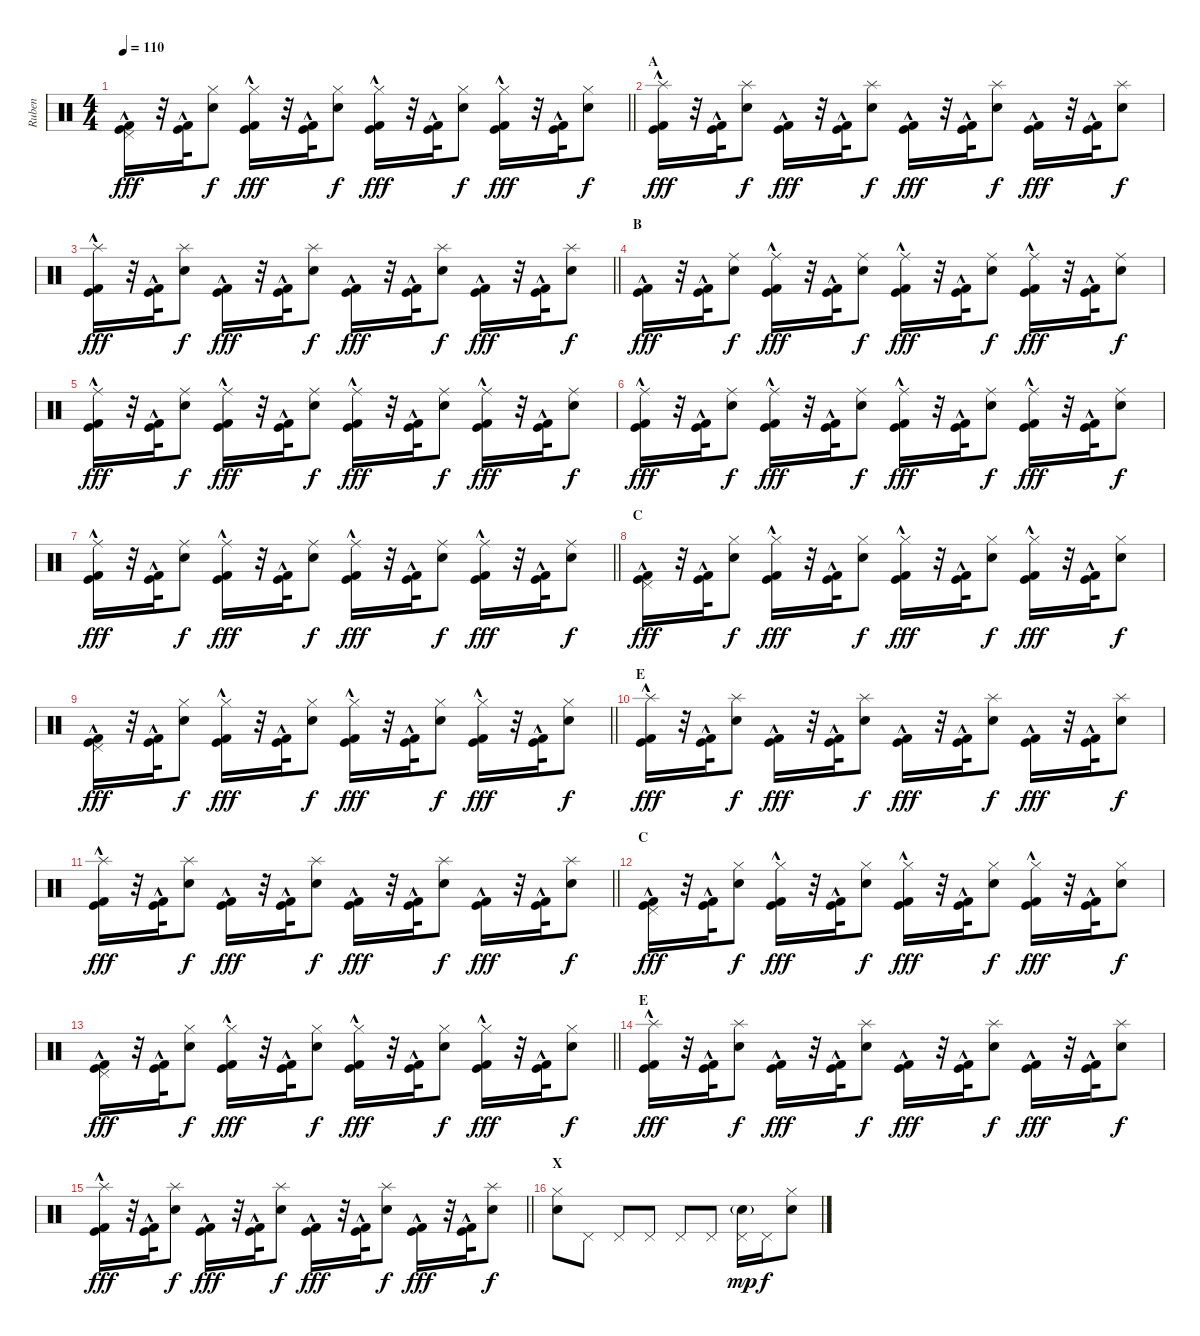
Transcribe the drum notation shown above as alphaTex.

\track ("Ruben" "Ruben") {instrument percussion}
\staff {score}
\articulation defaults
\ts (4 4)
\tempo 110
\clef neutral
\barLineRight lightlight
\ks c
("Pedal Hi-Hat (hit)" "Kick (hit)"{hac} "Kick (hit) 2"{hac}).16{dy fff} r.32 ("Kick (hit)"{hac} "Kick (hit) 2"{hac}).32 ("Hi-Hat (closed)" "Snare (hit) 2").8{dy f} ("Hi-Hat (closed)" "Kick (hit)"{hac} "Kick (hit) 2"{hac}).16{dy fff} r.32 ("Kick (hit)"{hac} "Kick (hit) 2"{hac}).32 ("Hi-Hat (closed)" "Snare (hit) 2").8{dy f} ("Hi-Hat (closed)" "Kick (hit)"{hac} "Kick (hit) 2"{hac}).16{dy fff} r.32 ("Kick (hit)"{hac} "Kick (hit) 2"{hac}).32 ("Hi-Hat (closed)" "Snare (hit) 2").8{dy f} ("Hi-Hat (closed)" "Kick (hit)"{hac} "Kick (hit) 2"{hac}).16{dy fff} r.32 ("Kick (hit)"{hac} "Kick (hit) 2"{hac}).32 ("Hi-Hat (closed)" "Snare (hit) 2").8{dy f} |
\section ("" "A")
("Splash (hit)" "Kick (hit)"{hac} "Kick (hit) 2"{hac}).16{dy fff} r.32 ("Kick (hit)"{hac} "Kick (hit) 2"{hac}).32 ("Splash (hit)" "Snare (hit) 2").8{dy f} ("Kick (hit)"{hac} "Kick (hit) 2"{hac}).16{dy fff} r.32 ("Kick (hit)"{hac} "Kick (hit) 2"{hac}).32 ("Splash (hit)" "Snare (hit) 2").8{dy f} ("Kick (hit)"{hac} "Kick (hit) 2"{hac}).16{dy fff} r.32 ("Kick (hit)"{hac} "Kick (hit) 2"{hac}).32 ("Splash (hit)" "Snare (hit) 2").8{dy f} ("Kick (hit)"{hac} "Kick (hit) 2"{hac}).16{dy fff} r.32 ("Kick (hit)"{hac} "Kick (hit) 2"{hac}).32 ("Splash (hit)" "Snare (hit) 2").8{dy f} |
\barLineRight lightlight
("Splash (hit)" "Kick (hit)"{hac} "Kick (hit) 2"{hac}).16{dy fff} r.32 ("Kick (hit)"{hac} "Kick (hit) 2"{hac}).32 ("Splash (hit)" "Snare (hit) 2").8{dy f} ("Kick (hit)"{hac} "Kick (hit) 2"{hac}).16{dy fff} r.32 ("Kick (hit)"{hac} "Kick (hit) 2"{hac}).32 ("Splash (hit)" "Snare (hit) 2").8{dy f} ("Kick (hit)"{hac} "Kick (hit) 2"{hac}).16{dy fff} r.32 ("Kick (hit)"{hac} "Kick (hit) 2"{hac}).32 ("Splash (hit)" "Snare (hit) 2").8{dy f} ("Kick (hit)"{hac} "Kick (hit) 2"{hac}).16{dy fff} r.32 ("Kick (hit)"{hac} "Kick (hit) 2"{hac}).32 ("Splash (hit)" "Snare (hit) 2").8{dy f} |
\section ("" "B")
("Kick (hit)"{hac} "Kick (hit) 2"{hac}).16{dy fff} r.32 ("Kick (hit)"{hac} "Kick (hit) 2"{hac}).32 ("Ride (middle)" "Snare (hit) 2").8{dy f} ("Ride (middle)" "Kick (hit)"{hac} "Kick (hit) 2"{hac}).16{dy fff} r.32 ("Kick (hit)"{hac} "Kick (hit) 2"{hac}).32 ("Ride (middle)" "Snare (hit) 2").8{dy f} ("Ride (middle)" "Kick (hit)"{hac} "Kick (hit) 2"{hac}).16{dy fff} r.32 ("Kick (hit)"{hac} "Kick (hit) 2"{hac}).32 ("Ride (middle)" "Snare (hit) 2").8{dy f} ("Ride (middle)" "Kick (hit)"{hac} "Kick (hit) 2"{hac}).16{dy fff} r.32 ("Kick (hit)"{hac} "Kick (hit) 2"{hac}).32 ("Ride (middle)" "Snare (hit) 2").8{dy f} |
("Ride (middle)" "Kick (hit)"{hac} "Kick (hit) 2"{hac}).16{dy fff} r.32 ("Kick (hit)"{hac} "Kick (hit) 2"{hac}).32 ("Ride (middle)" "Snare (hit) 2").8{dy f} ("Ride (middle)" "Kick (hit)"{hac} "Kick (hit) 2"{hac}).16{dy fff} r.32 ("Kick (hit)"{hac} "Kick (hit) 2"{hac}).32 ("Ride (middle)" "Snare (hit) 2").8{dy f} ("Ride (middle)" "Kick (hit)"{hac} "Kick (hit) 2"{hac}).16{dy fff} r.32 ("Kick (hit)"{hac} "Kick (hit) 2"{hac}).32 ("Ride (middle)" "Snare (hit) 2").8{dy f} ("Ride (middle)" "Kick (hit)"{hac} "Kick (hit) 2"{hac}).16{dy fff} r.32 ("Kick (hit)"{hac} "Kick (hit) 2"{hac}).32 ("Ride (middle)" "Snare (hit) 2").8{dy f} |
("Ride (middle)" "Kick (hit)"{hac} "Kick (hit) 2"{hac}).16{dy fff} r.32 ("Kick (hit)"{hac} "Kick (hit) 2"{hac}).32 ("Ride (middle)" "Snare (hit) 2").8{dy f} ("Ride (middle)" "Kick (hit)"{hac} "Kick (hit) 2"{hac}).16{dy fff} r.32 ("Kick (hit)"{hac} "Kick (hit) 2"{hac}).32 ("Ride (middle)" "Snare (hit) 2").8{dy f} ("Ride (middle)" "Kick (hit)"{hac} "Kick (hit) 2"{hac}).16{dy fff} r.32 ("Kick (hit)"{hac} "Kick (hit) 2"{hac}).32 ("Ride (middle)" "Snare (hit) 2").8{dy f} ("Ride (middle)" "Kick (hit)"{hac} "Kick (hit) 2"{hac}).16{dy fff} r.32 ("Kick (hit)"{hac} "Kick (hit) 2"{hac}).32 ("Ride (middle)" "Snare (hit) 2").8{dy f} |
\barLineRight lightlight
("Ride (middle)" "Kick (hit)"{hac} "Kick (hit) 2"{hac}).16{dy fff} r.32 ("Kick (hit)"{hac} "Kick (hit) 2"{hac}).32 ("Ride (middle)" "Snare (hit) 2").8{dy f} ("Ride (middle)" "Kick (hit)"{hac} "Kick (hit) 2"{hac}).16{dy fff} r.32 ("Kick (hit)"{hac} "Kick (hit) 2"{hac}).32 ("Ride (middle)" "Snare (hit) 2").8{dy f} ("Ride (middle)" "Kick (hit)"{hac} "Kick (hit) 2"{hac}).16{dy fff} r.32 ("Kick (hit)"{hac} "Kick (hit) 2"{hac}).32 ("Ride (middle)" "Snare (hit) 2").8{dy f} ("Ride (middle)" "Kick (hit)"{hac} "Kick (hit) 2"{hac}).16{dy fff} r.32 ("Kick (hit)"{hac} "Kick (hit) 2"{hac}).32 ("Ride (middle)" "Snare (hit) 2").8{dy f} |
\section ("" "C")
("Pedal Hi-Hat (hit)" "Kick (hit)"{hac} "Kick (hit) 2"{hac}).16{dy fff} r.32 ("Kick (hit)"{hac} "Kick (hit) 2"{hac}).32 ("Hi-Hat (closed)" "Snare (hit) 2").8{dy f} ("Hi-Hat (closed)" "Kick (hit)"{hac} "Kick (hit) 2"{hac}).16{dy fff} r.32 ("Kick (hit)"{hac} "Kick (hit) 2"{hac}).32 ("Hi-Hat (closed)" "Snare (hit) 2").8{dy f} ("Hi-Hat (closed)" "Kick (hit)"{hac} "Kick (hit) 2"{hac}).16{dy fff} r.32 ("Kick (hit)"{hac} "Kick (hit) 2"{hac}).32 ("Hi-Hat (closed)" "Snare (hit) 2").8{dy f} ("Hi-Hat (closed)" "Kick (hit)"{hac} "Kick (hit) 2"{hac}).16{dy fff} r.32 ("Kick (hit)"{hac} "Kick (hit) 2"{hac}).32 ("Hi-Hat (closed)" "Snare (hit) 2").8{dy f} |
\barLineRight lightlight
("Pedal Hi-Hat (hit)" "Kick (hit)"{hac} "Kick (hit) 2"{hac}).16{dy fff} r.32 ("Kick (hit)"{hac} "Kick (hit) 2"{hac}).32 ("Hi-Hat (closed)" "Snare (hit) 2").8{dy f} ("Hi-Hat (closed)" "Kick (hit)"{hac} "Kick (hit) 2"{hac}).16{dy fff} r.32 ("Kick (hit)"{hac} "Kick (hit) 2"{hac}).32 ("Hi-Hat (closed)" "Snare (hit) 2").8{dy f} ("Hi-Hat (closed)" "Kick (hit)"{hac} "Kick (hit) 2"{hac}).16{dy fff} r.32 ("Kick (hit)"{hac} "Kick (hit) 2"{hac}).32 ("Hi-Hat (closed)" "Snare (hit) 2").8{dy f} ("Hi-Hat (closed)" "Kick (hit)"{hac} "Kick (hit) 2"{hac}).16{dy fff} r.32 ("Kick (hit)"{hac} "Kick (hit) 2"{hac}).32 ("Hi-Hat (closed)" "Snare (hit) 2").8{dy f} |
\section ("" "E")
("Splash (hit)" "Kick (hit)"{hac} "Kick (hit) 2"{hac}).16{dy fff} r.32 ("Kick (hit)"{hac} "Kick (hit) 2"{hac}).32 ("Splash (hit)" "Snare (hit) 2").8{dy f} ("Kick (hit)"{hac} "Kick (hit) 2"{hac}).16{dy fff} r.32 ("Kick (hit)"{hac} "Kick (hit) 2"{hac}).32 ("Splash (hit)" "Snare (hit) 2").8{dy f} ("Kick (hit)"{hac} "Kick (hit) 2"{hac}).16{dy fff} r.32 ("Kick (hit)"{hac} "Kick (hit) 2"{hac}).32 ("Splash (hit)" "Snare (hit) 2").8{dy f} ("Kick (hit)"{hac} "Kick (hit) 2"{hac}).16{dy fff} r.32 ("Kick (hit)"{hac} "Kick (hit) 2"{hac}).32 ("Splash (hit)" "Snare (hit) 2").8{dy f} |
\barLineRight lightlight
("Splash (hit)" "Kick (hit)"{hac} "Kick (hit) 2"{hac}).16{dy fff} r.32 ("Kick (hit)"{hac} "Kick (hit) 2"{hac}).32 ("Splash (hit)" "Snare (hit) 2").8{dy f} ("Kick (hit)"{hac} "Kick (hit) 2"{hac}).16{dy fff} r.32 ("Kick (hit)"{hac} "Kick (hit) 2"{hac}).32 ("Splash (hit)" "Snare (hit) 2").8{dy f} ("Kick (hit)"{hac} "Kick (hit) 2"{hac}).16{dy fff} r.32 ("Kick (hit)"{hac} "Kick (hit) 2"{hac}).32 ("Splash (hit)" "Snare (hit) 2").8{dy f} ("Kick (hit)"{hac} "Kick (hit) 2"{hac}).16{dy fff} r.32 ("Kick (hit)"{hac} "Kick (hit) 2"{hac}).32 ("Splash (hit)" "Snare (hit) 2").8{dy f} |
\section ("" "C")
("Pedal Hi-Hat (hit)" "Kick (hit)"{hac} "Kick (hit) 2"{hac}).16{dy fff} r.32 ("Kick (hit)"{hac} "Kick (hit) 2"{hac}).32 ("Hi-Hat (closed)" "Snare (hit) 2").8{dy f} ("Hi-Hat (closed)" "Kick (hit)"{hac} "Kick (hit) 2"{hac}).16{dy fff} r.32 ("Kick (hit)"{hac} "Kick (hit) 2"{hac}).32 ("Hi-Hat (closed)" "Snare (hit) 2").8{dy f} ("Hi-Hat (closed)" "Kick (hit)"{hac} "Kick (hit) 2"{hac}).16{dy fff} r.32 ("Kick (hit)"{hac} "Kick (hit) 2"{hac}).32 ("Hi-Hat (closed)" "Snare (hit) 2").8{dy f} ("Hi-Hat (closed)" "Kick (hit)"{hac} "Kick (hit) 2"{hac}).16{dy fff} r.32 ("Kick (hit)"{hac} "Kick (hit) 2"{hac}).32 ("Hi-Hat (closed)" "Snare (hit) 2").8{dy f} |
\barLineRight lightlight
("Pedal Hi-Hat (hit)" "Kick (hit)"{hac} "Kick (hit) 2"{hac}).16{dy fff} r.32 ("Kick (hit)"{hac} "Kick (hit) 2"{hac}).32 ("Hi-Hat (closed)" "Snare (hit) 2").8{dy f} ("Hi-Hat (closed)" "Kick (hit)"{hac} "Kick (hit) 2"{hac}).16{dy fff} r.32 ("Kick (hit)"{hac} "Kick (hit) 2"{hac}).32 ("Hi-Hat (closed)" "Snare (hit) 2").8{dy f} ("Hi-Hat (closed)" "Kick (hit)"{hac} "Kick (hit) 2"{hac}).16{dy fff} r.32 ("Kick (hit)"{hac} "Kick (hit) 2"{hac}).32 ("Hi-Hat (closed)" "Snare (hit) 2").8{dy f} ("Hi-Hat (closed)" "Kick (hit)"{hac} "Kick (hit) 2"{hac}).16{dy fff} r.32 ("Kick (hit)"{hac} "Kick (hit) 2"{hac}).32 ("Hi-Hat (closed)" "Snare (hit) 2").8{dy f} |
\section ("" "E")
("Splash (hit)" "Kick (hit)"{hac} "Kick (hit) 2"{hac}).16{dy fff} r.32 ("Kick (hit)"{hac} "Kick (hit) 2"{hac}).32 ("Splash (hit)" "Snare (hit) 2").8{dy f} ("Kick (hit)"{hac} "Kick (hit) 2"{hac}).16{dy fff} r.32 ("Kick (hit)"{hac} "Kick (hit) 2"{hac}).32 ("Splash (hit)" "Snare (hit) 2").8{dy f} ("Kick (hit)"{hac} "Kick (hit) 2"{hac}).16{dy fff} r.32 ("Kick (hit)"{hac} "Kick (hit) 2"{hac}).32 ("Splash (hit)" "Snare (hit) 2").8{dy f} ("Kick (hit)"{hac} "Kick (hit) 2"{hac}).16{dy fff} r.32 ("Kick (hit)"{hac} "Kick (hit) 2"{hac}).32 ("Splash (hit)" "Snare (hit) 2").8{dy f} |
\barLineRight lightlight
("Splash (hit)" "Kick (hit)"{hac} "Kick (hit) 2"{hac}).16{dy fff} r.32 ("Kick (hit)"{hac} "Kick (hit) 2"{hac}).32 ("Splash (hit)" "Snare (hit) 2").8{dy f} ("Kick (hit)"{hac} "Kick (hit) 2"{hac}).16{dy fff} r.32 ("Kick (hit)"{hac} "Kick (hit) 2"{hac}).32 ("Splash (hit)" "Snare (hit) 2").8{dy f} ("Kick (hit)"{hac} "Kick (hit) 2"{hac}).16{dy fff} r.32 ("Kick (hit)"{hac} "Kick (hit) 2"{hac}).32 ("Splash (hit)" "Snare (hit) 2").8{dy f} ("Kick (hit)"{hac} "Kick (hit) 2"{hac}).16{dy fff} r.32 ("Kick (hit)"{hac} "Kick (hit) 2"{hac}).32 ("Splash (hit)" "Snare (hit) 2").8{dy f} |
\section ("" "X")
("Hi-Hat (closed)" "Snare (hit) 2").8 "Pedal Hi-Hat (hit)".8 "Pedal Hi-Hat (hit)".8 "Pedal Hi-Hat (hit)".8 "Pedal Hi-Hat (hit)".8 "Pedal Hi-Hat (hit)".8 ("Pedal Hi-Hat (hit)" "Snare (hit) 2"{g}).16{dy mp} "Pedal Hi-Hat (hit)".16{dy f} ("Hi-Hat (closed)" "Snare (hit) 2").8
